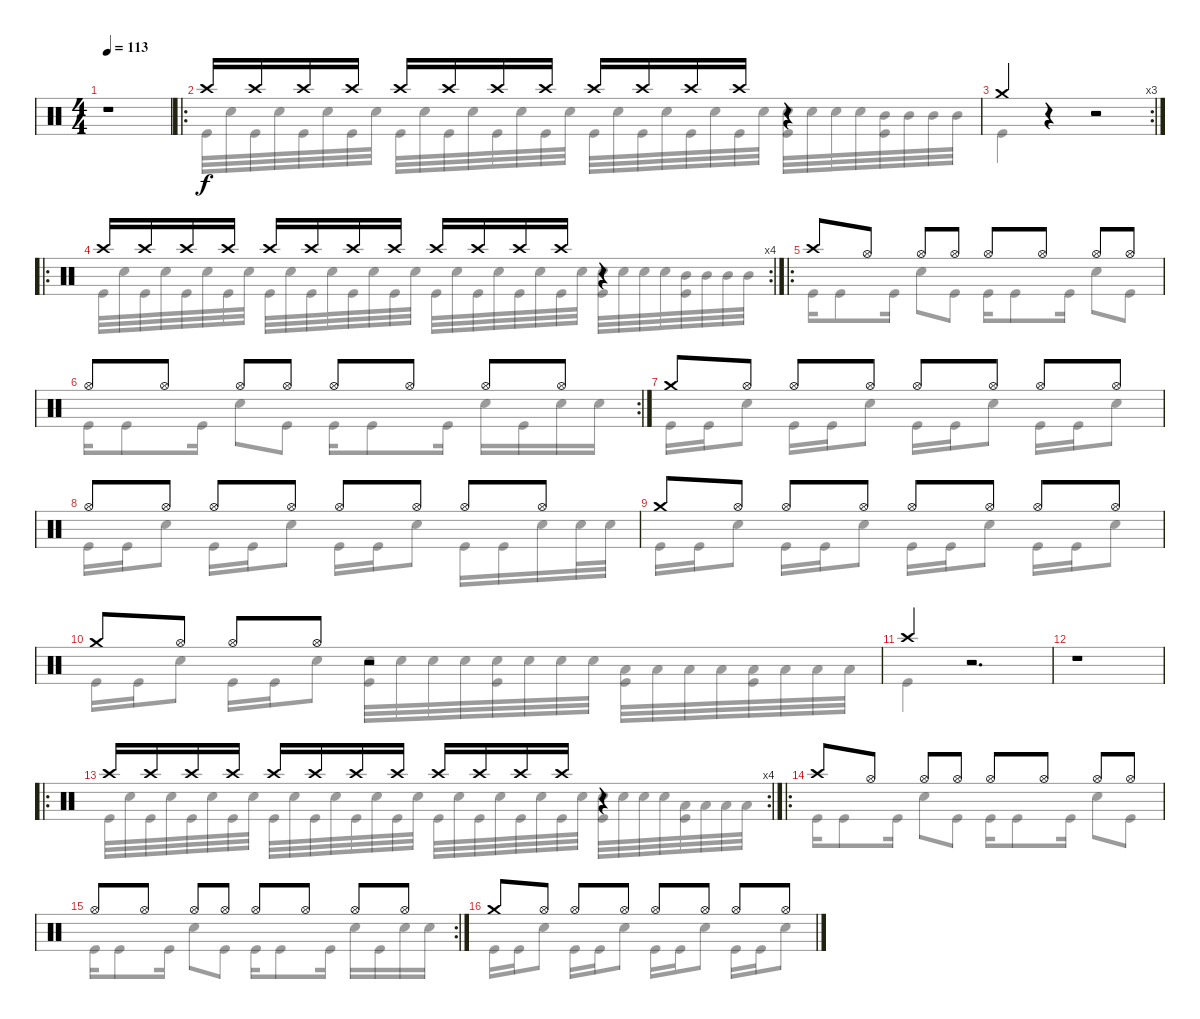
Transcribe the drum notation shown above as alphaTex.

\track "" {instrument percussion}
\staff {score}
\articulation defaults
\voice
\ts (4 4)
\tempo 113
\clef neutral
\ks c
r.1{dy f} |
\ro "Crash high (hit)".16 "Crash high (hit)".16 "Crash high (hit)".16 "Crash high (hit)".16 "Crash high (hit)".16 "Crash high (hit)".16 "Crash high (hit)".16 "Crash high (hit)".16 "Crash high (hit)".16 "Crash high (hit)".16 "Crash high (hit)".16 "Crash high (hit)".16
r.4 |
\rc 3 "Crash medium (hit)".4
r.4 r.2 |
\ro
\rc 4 "Crash high (hit)".16 "Crash high (hit)".16 "Crash high (hit)".16 "Crash high (hit)".16 "Crash high (hit)".16 "Crash high (hit)".16 "Crash high (hit)".16 "Crash high (hit)".16 "Crash high (hit)".16 "Crash high (hit)".16 "Crash high (hit)".16 "Crash high (hit)".16
r.4 |
\ro "Crash high (hit)".8 "Hi-Hat (open)".8 "Hi-Hat (open)".8 "Hi-Hat (open)".8 "Hi-Hat (open)".8 "Hi-Hat (open)".8 "Hi-Hat (open)".8 "Hi-Hat (open)".8
|
\rc 2 "Hi-Hat (open)".8 "Hi-Hat (open)".8 "Hi-Hat (open)".8 "Hi-Hat (open)".8 "Hi-Hat (open)".8 "Hi-Hat (open)".8 "Hi-Hat (open)".8 "Hi-Hat (open)".8
|
"Crash medium (hit)".8 "Hi-Hat (open)".8 "Hi-Hat (open)".8 "Hi-Hat (open)".8 "Hi-Hat (open)".8 "Hi-Hat (open)".8 "Hi-Hat (open)".8 "Hi-Hat (open)".8 |
"Hi-Hat (open)".8 "Hi-Hat (open)".8 "Hi-Hat (open)".8 "Hi-Hat (open)".8 "Hi-Hat (open)".8 "Hi-Hat (open)".8 "Hi-Hat (open)".8 "Hi-Hat (open)".8 |
"Crash medium (hit)".8 "Hi-Hat (open)".8 "Hi-Hat (open)".8 "Hi-Hat (open)".8 "Hi-Hat (open)".8 "Hi-Hat (open)".8 "Hi-Hat (open)".8 "Hi-Hat (open)".8 |
"Crash medium (hit)".8 "Hi-Hat (open)".8 "Hi-Hat (open)".8 "Hi-Hat (open)".8 r.2 |
"Crash high (hit)".4 r.2{d} |
r.1 |
\ro
\rc 4 "Crash high (hit)".16 "Crash high (hit)".16 "Crash high (hit)".16 "Crash high (hit)".16 "Crash high (hit)".16 "Crash high (hit)".16 "Crash high (hit)".16 "Crash high (hit)".16 "Crash high (hit)".16 "Crash high (hit)".16 "Crash high (hit)".16 "Crash high (hit)".16
r.4 |
\ro "Crash high (hit)".8 "Hi-Hat (open)".8 "Hi-Hat (open)".8 "Hi-Hat (open)".8 "Hi-Hat (open)".8 "Hi-Hat (open)".8 "Hi-Hat (open)".8 "Hi-Hat (open)".8
|
\rc 2 "Hi-Hat (open)".8 "Hi-Hat (open)".8 "Hi-Hat (open)".8 "Hi-Hat (open)".8 "Hi-Hat (open)".8 "Hi-Hat (open)".8 "Hi-Hat (open)".8 "Hi-Hat (open)".8
|
"Crash medium (hit)".8 "Hi-Hat (open)".8 "Hi-Hat (open)".8 "Hi-Hat (open)".8 "Hi-Hat (open)".8 "Hi-Hat (open)".8 "Hi-Hat (open)".8 "Hi-Hat (open)".8
\voice
\clef neutral
\ottava regular
\simile none
\ks c
r.1{dy f} |
"Kick (hit)".32 "Snare (hit) 2".32 "Kick (hit)".32 "Snare (hit) 2".32 "Kick (hit)".32 "Snare (hit) 2".32 "Kick (hit)".32 "Snare (hit) 2".32 "Kick (hit)".32 "Snare (hit) 2".32 "Kick (hit)".32 "Snare (hit) 2".32 "Kick (hit)".32 "Snare (hit) 2".32 "Kick (hit)".32 "Snare (hit) 2".32 "Kick (hit)".32 "Snare (hit) 2".32 "Kick (hit)".32 "Snare (hit) 2".32 "Kick (hit)".32 "Snare (hit) 2".32 "Kick (hit)".32 "Snare (hit) 2".32 ("Snare (hit) 2" "Kick (hit)").32 "Snare (hit) 2".32 "Snare (hit) 2".32 "Snare (hit) 2".32 ("Mid Tom (hit)" "Kick (hit)").32 "Mid Tom (hit)".32 "Mid Tom (hit)".32 "Mid Tom (hit)".32 |
"Kick (hit)".4 r.4 r.2 |
"Kick (hit)".32 "Snare (hit) 2".32 "Kick (hit)".32 "Snare (hit) 2".32 "Kick (hit)".32 "Snare (hit) 2".32 "Kick (hit)".32 "Snare (hit) 2".32 "Kick (hit)".32 "Snare (hit) 2".32 "Kick (hit)".32 "Snare (hit) 2".32 "Kick (hit)".32 "Snare (hit) 2".32 "Kick (hit)".32 "Snare (hit) 2".32 "Kick (hit)".32 "Snare (hit) 2".32 "Kick (hit)".32 "Snare (hit) 2".32 "Kick (hit)".32 "Snare (hit) 2".32 "Kick (hit)".32 "Snare (hit) 2".32 ("Snare (hit) 2" "Kick (hit)").32 "Snare (hit) 2".32 "Snare (hit) 2".32 "Snare (hit) 2".32 ("Mid Tom (hit)" "Kick (hit)").32 "Mid Tom (hit)".32 "Mid Tom (hit)".32 "Mid Tom (hit)".32 |
"Kick (hit)".16 "Kick (hit)".8 "Kick (hit)".16 "Snare (hit) 2".8 "Kick (hit)".8 "Kick (hit)".16 "Kick (hit)".8 "Kick (hit)".16 "Snare (hit) 2".8 "Kick (hit)".8 |
"Kick (hit)".16 "Kick (hit)".8 "Kick (hit)".16 "Snare (hit) 2".8 "Kick (hit)".8 "Kick (hit)".16 "Kick (hit)".8 "Kick (hit)".16 "Snare (hit) 2".16 "Kick (hit)".16 "Snare (hit) 2".16 "Snare (hit) 2".16 |
"Kick (hit)".16 "Kick (hit)".16 "Snare (hit) 2".8 "Kick (hit)".16 "Kick (hit)".16 "Snare (hit) 2".8 "Kick (hit)".16 "Kick (hit)".16 "Snare (hit) 2".8 "Kick (hit)".16 "Kick (hit)".16 "Snare (hit) 2".8 |
"Kick (hit)".16 "Kick (hit)".16 "Snare (hit) 2".8 "Kick (hit)".16 "Kick (hit)".16 "Snare (hit) 2".8 "Kick (hit)".16 "Kick (hit)".16 "Snare (hit) 2".8 "Kick (hit)".16 "Kick (hit)".16 "Snare (hit) 2".16 "Snare (hit) 2".32 "Snare (hit) 2".32 |
"Kick (hit)".16 "Kick (hit)".16 "Snare (hit) 2".8 "Kick (hit)".16 "Kick (hit)".16 "Snare (hit) 2".8 "Kick (hit)".16 "Kick (hit)".16 "Snare (hit) 2".8 "Kick (hit)".16 "Kick (hit)".16 "Snare (hit) 2".8 |
"Kick (hit)".16 "Kick (hit)".16 "Snare (hit) 2".8 "Kick (hit)".16 "Kick (hit)".16 "Snare (hit) 2".8 ("Snare (hit) 2" "Kick (hit)").32 "Snare (hit) 2".32 "Snare (hit) 2".32 "Snare (hit) 2".32 ("Snare (hit) 2" "Kick (hit)").32 "Snare (hit) 2".32 "Snare (hit) 2".32 "Snare (hit) 2".32 ("Low Tom (hit)" "Kick (hit)").32 "Low Tom (hit)".32 "Low Tom (hit)".32 "Low Tom (hit)".32 ("Low Tom (hit)" "Kick (hit)").32 "Low Tom (hit)".32 "Low Tom (hit)".32 "Low Tom (hit)".32 |
"Kick (hit)".4 r.2{d} |
r.1 |
"Kick (hit)".32 "Snare (hit) 2".32 "Kick (hit)".32 "Snare (hit) 2".32 "Kick (hit)".32 "Snare (hit) 2".32 "Kick (hit)".32 "Snare (hit) 2".32 "Kick (hit)".32 "Snare (hit) 2".32 "Kick (hit)".32 "Snare (hit) 2".32 "Kick (hit)".32 "Snare (hit) 2".32 "Kick (hit)".32 "Snare (hit) 2".32 "Kick (hit)".32 "Snare (hit) 2".32 "Kick (hit)".32 "Snare (hit) 2".32 "Kick (hit)".32 "Snare (hit) 2".32 "Kick (hit)".32 "Snare (hit) 2".32 ("Snare (hit) 2" "Kick (hit)").32 "Snare (hit) 2".32 "Snare (hit) 2".32 "Snare (hit) 2".32 ("Low Tom (hit)" "Kick (hit)").32 "Low Tom (hit)".32 "Low Tom (hit)".32 "Low Tom (hit)".32 |
"Kick (hit)".16 "Kick (hit)".8 "Kick (hit)".16 "Snare (hit) 2".8 "Kick (hit)".8 "Kick (hit)".16 "Kick (hit)".8 "Kick (hit)".16 "Snare (hit) 2".8 "Kick (hit)".8 |
"Kick (hit)".16 "Kick (hit)".8 "Kick (hit)".16 "Snare (hit) 2".8 "Kick (hit)".8 "Kick (hit)".16 "Kick (hit)".8 "Kick (hit)".16 "Snare (hit) 2".16 "Kick (hit)".16 "Snare (hit) 2".16 "Snare (hit) 2".16 |
"Kick (hit)".16 "Kick (hit)".16 "Snare (hit) 2".8 "Kick (hit)".16 "Kick (hit)".16 "Snare (hit) 2".8 "Kick (hit)".16 "Kick (hit)".16 "Snare (hit) 2".8 "Kick (hit)".16 "Kick (hit)".16 "Snare (hit) 2".8
